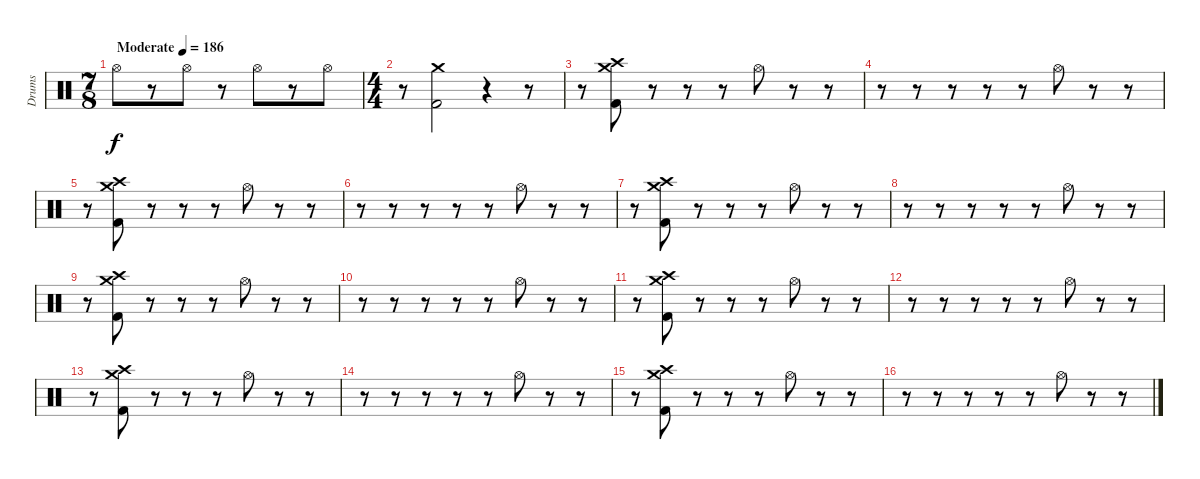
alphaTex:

\track ("Drums" "Drums") {instrument percussion bank 177}
\staff {score}
\articulation defaults
\ts (7 8)
\tempo (186 "Moderate")
\clef neutral
\ks c "Hi-Hat (open)".8{dy f}
r.8 "Hi-Hat (open)".8 r.8 "Hi-Hat (open)".8 r.8 "Hi-Hat (open)".8 |
\ts (4 4)
r.8 ("Crash medium (hit)" "Kick (hit) 2").2 r.4 r.8 |
r.8 ("Crash high (hit)" "Crash medium (hit)" "Kick (hit) 2").8 r.8 r.8 r.8 "Hi-Hat (open)".8 r.8 r.8 |
r.8 r.8 r.8 r.8 r.8 "Hi-Hat (open)".8 r.8 r.8 |
r.8 ("Crash high (hit)" "Crash medium (hit)" "Kick (hit) 2").8 r.8 r.8 r.8 "Hi-Hat (open)".8 r.8 r.8 |
r.8 r.8 r.8 r.8 r.8 "Hi-Hat (open)".8 r.8 r.8 |
r.8 ("Crash high (hit)" "Crash medium (hit)" "Kick (hit) 2").8 r.8 r.8 r.8 "Hi-Hat (open)".8 r.8 r.8 |
r.8 r.8 r.8 r.8 r.8 "Hi-Hat (open)".8 r.8 r.8 |
r.8 ("Crash high (hit)" "Crash medium (hit)" "Kick (hit) 2").8 r.8 r.8 r.8 "Hi-Hat (open)".8 r.8 r.8 |
r.8 r.8 r.8 r.8 r.8 "Hi-Hat (open)".8 r.8 r.8 |
r.8 ("Crash high (hit)" "Crash medium (hit)" "Kick (hit) 2").8 r.8 r.8 r.8 "Hi-Hat (open)".8 r.8 r.8 |
r.8 r.8 r.8 r.8 r.8 "Hi-Hat (open)".8 r.8 r.8 |
r.8 ("Crash high (hit)" "Crash medium (hit)" "Kick (hit) 2").8 r.8 r.8 r.8 "Hi-Hat (open)".8 r.8 r.8 |
r.8 r.8 r.8 r.8 r.8 "Hi-Hat (open)".8 r.8 r.8 |
r.8 ("Crash high (hit)" "Crash medium (hit)" "Kick (hit) 2").8 r.8 r.8 r.8 "Hi-Hat (open)".8 r.8 r.8 |
r.8 r.8 r.8 r.8 r.8 "Hi-Hat (open)".8 r.8 r.8
